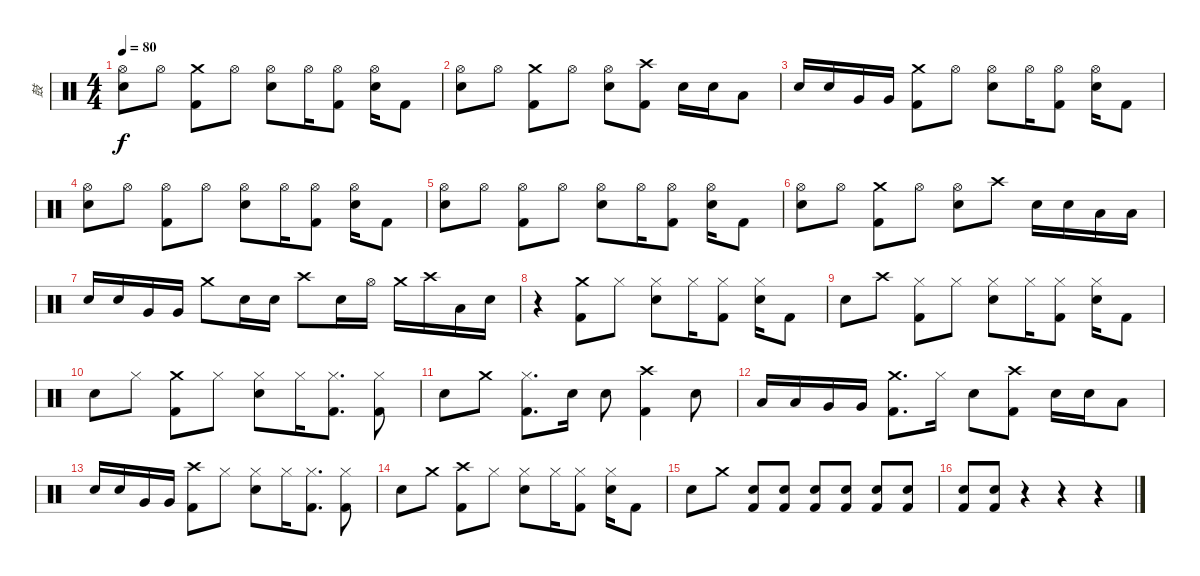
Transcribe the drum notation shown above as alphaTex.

\track ("鼓" "鼓") {instrument percussion}
\staff {score}
\articulation defaults
\ts (4 4)
\tempo 80
\clef neutral
\ks c
("Hi-Hat (open)" "Snare (hit) 2").8{dy f} "Hi-Hat (open)".8 ("Crash medium (hit)" "Kick (hit) 2").8 "Hi-Hat (open)".8 ("Hi-Hat (open)" "Snare (hit) 2").8 "Hi-Hat (open)".16 ("Hi-Hat (open)" "Kick (hit) 2").8 ("Hi-Hat (open)" "Snare (hit) 2").16 "Kick (hit) 2".8 |
("Hi-Hat (open)" "Snare (hit) 2").8 "Hi-Hat (open)".8 ("Crash medium (hit)" "Kick (hit) 2").8 "Hi-Hat (open)".8 ("Hi-Hat (open)" "Snare (hit) 2").8 ("Crash high (hit)" "Kick (hit) 2").8 "Snare (hit) 2".16 "Snare (hit) 2".16 "Low Tom (hit)".8 |
"Snare (hit) 2".16 "Snare (hit) 2".16 "Very Low Tom (hit)".16 "Very Low Tom (hit)".16 ("Crash medium (hit)" "Kick (hit) 2").8 "Hi-Hat (open)".8 ("Hi-Hat (open)" "Snare (hit) 2").8 "Hi-Hat (open)".16 ("Hi-Hat (open)" "Kick (hit) 2").8 ("Hi-Hat (open)" "Snare (hit) 2").16 "Kick (hit) 2".8 |
("Hi-Hat (open)" "Snare (hit) 2").8 "Hi-Hat (open)".8 ("Hi-Hat (open)" "Kick (hit) 2").8 "Hi-Hat (open)".8 ("Hi-Hat (open)" "Snare (hit) 2").8 "Hi-Hat (open)".16 ("Hi-Hat (open)" "Kick (hit) 2").8 ("Hi-Hat (open)" "Snare (hit) 2").16 "Kick (hit) 2".8 |
("Hi-Hat (open)" "Snare (hit) 2").8 "Hi-Hat (open)".8 ("Hi-Hat (open)" "Kick (hit) 2").8 "Hi-Hat (open)".8 ("Hi-Hat (open)" "Snare (hit) 2").8 "Hi-Hat (open)".16 ("Hi-Hat (open)" "Kick (hit) 2").8 ("Hi-Hat (open)" "Snare (hit) 2").16 "Kick (hit) 2".8 |
("Hi-Hat (open)" "Snare (hit) 2").8 "Hi-Hat (open)".8 ("Crash medium (hit)" "Kick (hit) 2").8 "Hi-Hat (open)".8 ("Hi-Hat (open)" "Snare (hit) 2").8 "Crash high (hit)".8 "Snare (hit) 2".16 "Snare (hit) 2".16 "Low Tom (hit)".16 "Low Tom (hit)".16 |
"Snare (hit) 2".16 "Snare (hit) 2".16 "Very Low Tom (hit)".16 "Very Low Tom (hit)".16 "Crash medium (hit)".8 "Snare (hit) 2".16 "Snare (hit) 2".16 "Crash high (hit)".8 "Snare (hit) 2".16 "Hi-Hat (open)".16 "Crash medium (hit)".16 "Crash high (hit)".16 "Low Tom (hit)".16 "Snare (hit)".16 |
r.4 ("Crash medium (hit)" "Kick (hit) 2").8 "Hi-Hat (closed)".8 ("Hi-Hat (closed)" "Snare (hit) 2").8 "Hi-Hat (closed)".16 ("Hi-Hat (closed)" "Kick (hit) 2").8 ("Hi-Hat (closed)" "Snare (hit) 2").16 "Kick (hit) 2".8 |
"Snare (hit) 2".8 "Crash high (hit)".8 ("Hi-Hat (closed)" "Kick (hit) 2").8 "Hi-Hat (closed)".8 ("Hi-Hat (closed)" "Snare (hit) 2").8 "Hi-Hat (closed)".16 ("Hi-Hat (closed)" "Kick (hit) 2").8 ("Hi-Hat (closed)" "Snare (hit) 2").16 "Kick (hit) 2".8 |
"Snare (hit) 2".8 "Hi-Hat (closed)".8 ("Crash medium (hit)" "Kick (hit) 2").8 "Hi-Hat (closed)".8 ("Hi-Hat (closed)" "Snare (hit) 2").8 "Hi-Hat (closed)".16 ("Hi-Hat (closed)" "Kick (hit) 2").8{d} ("Hi-Hat (closed)" "Kick (hit) 2").8 |
"Snare (hit) 2".8 "Crash medium (hit)".8 ("Hi-Hat (closed)" "Kick (hit) 2").8{d} "Snare (hit) 2".16 "Snare (hit) 2".8 ("Crash high (hit)" "Kick (hit) 2").4 "Snare (hit) 2".8 |
"Low Tom (hit)".16 "Low Tom (hit)".16 "Very Low Tom (hit)".16 "Very Low Tom (hit)".16 ("Crash medium (hit)" "Kick (hit) 2").8{d} "Hi-Hat (closed)".16 "Snare (hit) 2".8 ("Crash high (hit)" "Kick (hit) 2").8 "Snare (hit) 2".16 "Snare (hit) 2".16 "Low Tom (hit)".8 |
"Snare (hit) 2".16 "Snare (hit) 2".16 "Very Low Tom (hit)".16 "Very Low Tom (hit)".16 ("Crash high (hit)" "Kick (hit) 2").8 "Hi-Hat (closed)".8 ("Hi-Hat (closed)" "Snare (hit) 2").8 "Hi-Hat (closed)".16 ("Hi-Hat (closed)" "Kick (hit) 2").8{d} ("Hi-Hat (closed)" "Kick (hit) 2").8 |
"Snare (hit) 2".8 "Crash medium (hit)".8 ("Crash high (hit)" "Kick (hit) 2").8 "Hi-Hat (closed)".8 ("Hi-Hat (closed)" "Snare (hit) 2").8 "Hi-Hat (closed)".16 ("Hi-Hat (closed)" "Kick (hit) 2").8 ("Hi-Hat (closed)" "Snare (hit) 2").16 "Kick (hit) 2".8 |
"Snare (hit) 2".8 "Crash medium (hit)".8 ("Snare (hit) 2" "Kick (hit) 2").8 ("Snare (hit) 2" "Kick (hit) 2").8 ("Snare (hit) 2" "Kick (hit) 2").8 ("Snare (hit) 2" "Kick (hit) 2").8 ("Snare (hit) 2" "Kick (hit) 2").8 ("Snare (hit) 2" "Kick (hit) 2").8 |
("Snare (hit) 2" "Kick (hit) 2").8 ("Snare (hit) 2" "Kick (hit) 2").8 r.4 r.4 r.4
